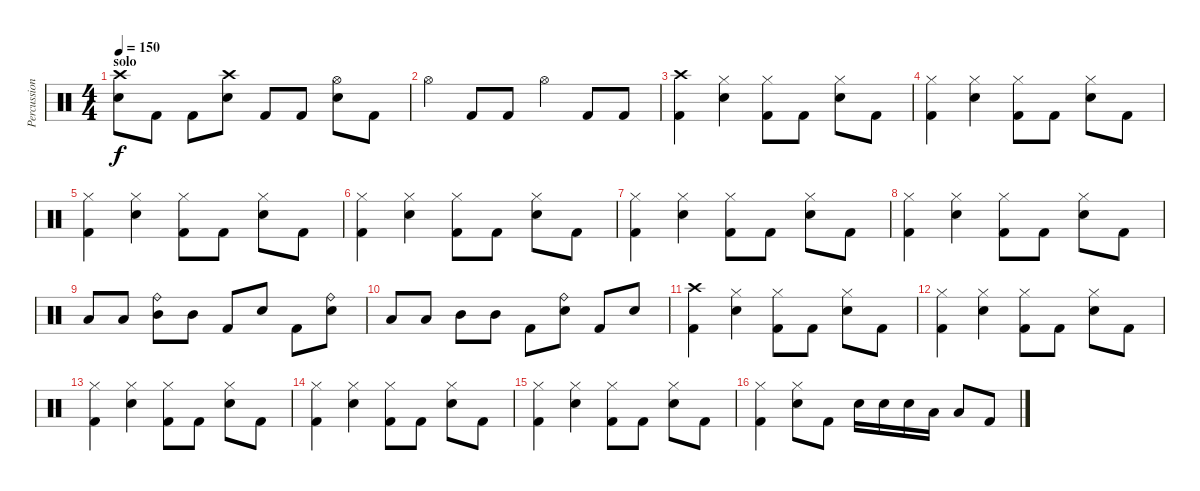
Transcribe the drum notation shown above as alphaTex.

\track ("Percussion" "Percussion") {instrument percussion}
\staff {score}
\articulation defaults
\ts (4 4)
\section ("" "solo")
\tempo 150
\clef neutral
\ks c
("Crash high (hit)" "Electric Snare (hit)").8{dy f} "Kick (hit) 2".8 "Kick (hit) 2".8 ("Crash high (hit)" "Electric Snare (hit)").8 "Kick (hit) 2".8 "Kick (hit) 2".8 ("Hi-Hat (open)" "Electric Snare (hit)").8 "Kick (hit) 2".8 |
"Hi-Hat (open)".4 "Kick (hit) 2".8 "Kick (hit) 2".8 "Hi-Hat (open)".4 "Kick (hit) 2".8 "Kick (hit) 2".8 |
("Crash high (hit)" "Kick (hit) 2").4 ("Hi-Hat (closed)" "Electric Snare (hit)").4 ("Hi-Hat (closed)" "Kick (hit) 2").8 "Kick (hit) 2".8 ("Hi-Hat (closed)" "Electric Snare (hit)").8 "Kick (hit) 2".8 |
("Hi-Hat (closed)" "Kick (hit) 2").4 ("Hi-Hat (closed)" "Electric Snare (hit)").4 ("Hi-Hat (closed)" "Kick (hit) 2").8 "Kick (hit) 2".8 ("Hi-Hat (closed)" "Electric Snare (hit)").8 "Kick (hit) 2".8 |
("Hi-Hat (closed)" "Kick (hit) 2").4 ("Hi-Hat (closed)" "Electric Snare (hit)").4 ("Hi-Hat (closed)" "Kick (hit) 2").8 "Kick (hit) 2".8 ("Hi-Hat (closed)" "Electric Snare (hit)").8 "Kick (hit) 2".8 |
("Hi-Hat (closed)" "Kick (hit) 2").4 ("Hi-Hat (closed)" "Electric Snare (hit)").4 ("Hi-Hat (closed)" "Kick (hit) 2").8 "Kick (hit) 2".8 ("Hi-Hat (closed)" "Electric Snare (hit)").8 "Kick (hit) 2".8 |
("Hi-Hat (closed)" "Kick (hit) 2").4 ("Hi-Hat (closed)" "Electric Snare (hit)").4 ("Hi-Hat (closed)" "Kick (hit) 2").8 "Kick (hit) 2".8 ("Hi-Hat (closed)" "Electric Snare (hit)").8 "Kick (hit) 2".8 |
("Hi-Hat (closed)" "Kick (hit) 2").4 ("Hi-Hat (closed)" "Electric Snare (hit)").4 ("Hi-Hat (closed)" "Kick (hit) 2").8 "Kick (hit) 2".8 ("Hi-Hat (closed)" "Electric Snare (hit)").8 "Kick (hit) 2".8 |
"Low Tom (hit)".8 "Low Tom (hit)".8 ("Ride (bell)" "Mid Tom (hit)").8 "Mid Tom (hit)".8 "Kick (hit) 2".8 "Electric Snare (hit)".8 "Kick (hit) 2".8 ("Ride (bell)" "Electric Snare (hit)").8 |
"Low Tom (hit)".8 "Low Tom (hit)".8 "Mid Tom (hit)".8 "Mid Tom (hit)".8 "Kick (hit) 2".8 ("Ride (bell)" "Electric Snare (hit)").8 "Kick (hit) 2".8 "Electric Snare (hit)".8 |
("Crash high (hit)" "Kick (hit) 2").4 ("Hi-Hat (closed)" "Electric Snare (hit)").4 ("Hi-Hat (closed)" "Kick (hit) 2").8 "Kick (hit) 2".8 ("Hi-Hat (closed)" "Electric Snare (hit)").8 "Kick (hit) 2".8 |
("Hi-Hat (closed)" "Kick (hit) 2").4 ("Hi-Hat (closed)" "Electric Snare (hit)").4 ("Hi-Hat (closed)" "Kick (hit) 2").8 "Kick (hit) 2".8 ("Hi-Hat (closed)" "Electric Snare (hit)").8 "Kick (hit) 2".8 |
("Hi-Hat (closed)" "Kick (hit) 2").4 ("Hi-Hat (closed)" "Electric Snare (hit)").4 ("Hi-Hat (closed)" "Kick (hit) 2").8 "Kick (hit) 2".8 ("Hi-Hat (closed)" "Electric Snare (hit)").8 "Kick (hit) 2".8 |
("Hi-Hat (closed)" "Kick (hit) 2").4 ("Hi-Hat (closed)" "Electric Snare (hit)").4 ("Hi-Hat (closed)" "Kick (hit) 2").8 "Kick (hit) 2".8 ("Hi-Hat (closed)" "Electric Snare (hit)").8 "Kick (hit) 2".8 |
("Hi-Hat (closed)" "Kick (hit) 2").4 ("Hi-Hat (closed)" "Electric Snare (hit)").4 ("Hi-Hat (closed)" "Kick (hit) 2").8 "Kick (hit) 2".8 ("Hi-Hat (closed)" "Electric Snare (hit)").8 "Kick (hit) 2".8 |
("Hi-Hat (closed)" "Kick (hit) 2").4 ("Hi-Hat (closed)" "Electric Snare (hit)").8 "Kick (hit) 2".8 "Electric Snare (hit)".16 "Electric Snare (hit)".16 "Electric Snare (hit)".16 "Low Tom (hit)".16 "Low Tom (hit)".8 "Kick (hit) 2".8
